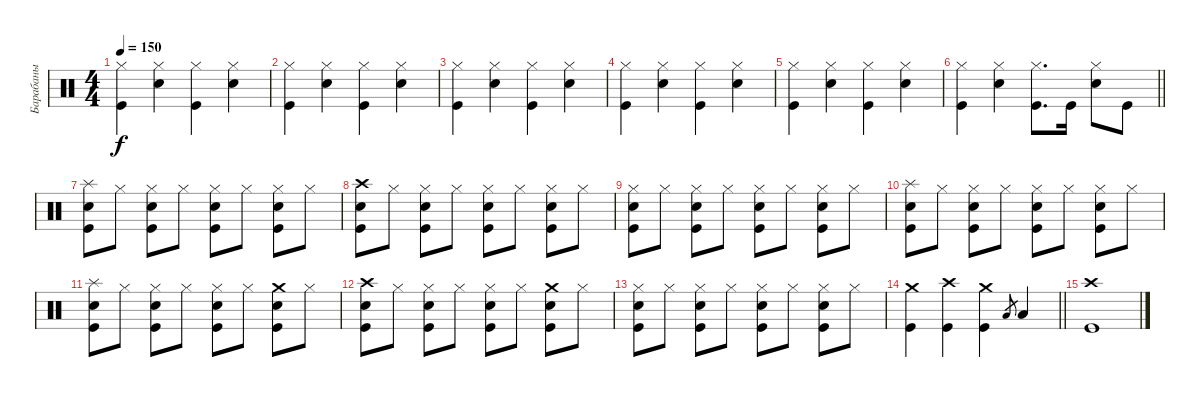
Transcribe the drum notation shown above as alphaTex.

\track ("Барабаны" "Барабаны") {instrument percussion}
\staff {score}
\articulation defaults
\ts (4 4)
\tempo 150
\clef neutral
\ks c
("Hi-Hat (closed)" "Kick (hit)").4{dy f} ("Hi-Hat (closed)" "Electric Snare (hit)").4 ("Hi-Hat (closed)" "Kick (hit)").4 ("Hi-Hat (closed)" "Electric Snare (hit)").4 |
("Hi-Hat (closed)" "Kick (hit)").4 ("Hi-Hat (closed)" "Electric Snare (hit)").4 ("Hi-Hat (closed)" "Kick (hit)").4 ("Hi-Hat (closed)" "Electric Snare (hit)").4 |
("Hi-Hat (closed)" "Kick (hit)").4 ("Hi-Hat (closed)" "Electric Snare (hit)").4 ("Hi-Hat (closed)" "Kick (hit)").4 ("Hi-Hat (closed)" "Electric Snare (hit)").4 |
("Hi-Hat (closed)" "Kick (hit)").4 ("Hi-Hat (closed)" "Electric Snare (hit)").4 ("Hi-Hat (closed)" "Kick (hit)").4 ("Hi-Hat (closed)" "Electric Snare (hit)").4 |
("Hi-Hat (closed)" "Kick (hit)").4 ("Hi-Hat (closed)" "Electric Snare (hit)").4 ("Hi-Hat (closed)" "Kick (hit)").4 ("Hi-Hat (closed)" "Electric Snare (hit)").4 |
\barLineRight lightlight
("Hi-Hat (closed)" "Kick (hit)").4 ("Hi-Hat (closed)" "Electric Snare (hit)").4 ("Hi-Hat (closed)" "Kick (hit)").8{d} "Kick (hit)".16 ("Hi-Hat (closed)" "Electric Snare (hit)").8 "Kick (hit)".8 |
("Splash (hit)" "Electric Snare (hit)" "Kick (hit)").8 "Hi-Hat (closed)".8 ("Hi-Hat (closed)" "Electric Snare (hit)" "Kick (hit)").8 "Hi-Hat (closed)".8 ("Hi-Hat (closed)" "Electric Snare (hit)" "Kick (hit)").8 "Hi-Hat (closed)".8 ("Hi-Hat (closed)" "Electric Snare (hit)" "Kick (hit)").8 "Hi-Hat (closed)".8 |
("Crash high (hit)" "Electric Snare (hit)" "Kick (hit)").8 "Hi-Hat (closed)".8 ("Hi-Hat (closed)" "Electric Snare (hit)" "Kick (hit)").8 "Hi-Hat (closed)".8 ("Hi-Hat (closed)" "Electric Snare (hit)" "Kick (hit)").8 "Hi-Hat (closed)".8 ("Hi-Hat (closed)" "Electric Snare (hit)" "Kick (hit)").8 "Hi-Hat (closed)".8 |
("Hi-Hat (closed)" "Electric Snare (hit)" "Kick (hit)").8 "Hi-Hat (closed)".8 ("Hi-Hat (closed)" "Electric Snare (hit)" "Kick (hit)").8 "Hi-Hat (closed)".8 ("Hi-Hat (closed)" "Electric Snare (hit)" "Kick (hit)").8 "Hi-Hat (closed)".8 ("Hi-Hat (closed)" "Electric Snare (hit)" "Kick (hit)").8 "Hi-Hat (closed)".8 |
("Splash (hit)" "Electric Snare (hit)" "Kick (hit)").8 "Hi-Hat (closed)".8 ("Hi-Hat (closed)" "Electric Snare (hit)" "Kick (hit)").8 "Hi-Hat (closed)".8 ("Hi-Hat (closed)" "Electric Snare (hit)" "Kick (hit)").8 "Hi-Hat (closed)".8 ("Hi-Hat (closed)" "Electric Snare (hit)" "Kick (hit)").8 "Hi-Hat (closed)".8 |
("Splash (hit)" "Electric Snare (hit)" "Kick (hit)").8 "Hi-Hat (closed)".8 ("Hi-Hat (closed)" "Electric Snare (hit)" "Kick (hit)").8 "Hi-Hat (closed)".8 ("Hi-Hat (closed)" "Electric Snare (hit)" "Kick (hit)").8 "Hi-Hat (closed)".8 ("Crash medium (hit)" "Electric Snare (hit)" "Kick (hit)").8 "Hi-Hat (closed)".8 |
("Crash high (hit)" "Electric Snare (hit)" "Kick (hit)").8 "Hi-Hat (closed)".8 ("Hi-Hat (closed)" "Electric Snare (hit)" "Kick (hit)").8 "Hi-Hat (closed)".8 ("Hi-Hat (closed)" "Electric Snare (hit)" "Kick (hit)").8 "Hi-Hat (closed)".8 ("Crash medium (hit)" "Electric Snare (hit)" "Kick (hit)").8 "Hi-Hat (closed)".8 |
("Hi-Hat (closed)" "Electric Snare (hit)" "Kick (hit)").8 "Hi-Hat (closed)".8 ("Hi-Hat (closed)" "Electric Snare (hit)" "Kick (hit)").8 "Hi-Hat (closed)".8 ("Hi-Hat (closed)" "Electric Snare (hit)" "Kick (hit)").8 "Hi-Hat (closed)".8 ("Hi-Hat (closed)" "Electric Snare (hit)" "Kick (hit)").8 "Hi-Hat (closed)".8 |
\barLineRight lightlight
("Crash medium (hit)" "Kick (hit)").4 ("Crash high (hit)" "Kick (hit)").4 ("Crash medium (hit)" "Kick (hit)").4 "Low Tom (hit)"{h}.8{gr} "Low Tom (hit)".4 |
("Crash high (hit)" "Kick (hit)").1
